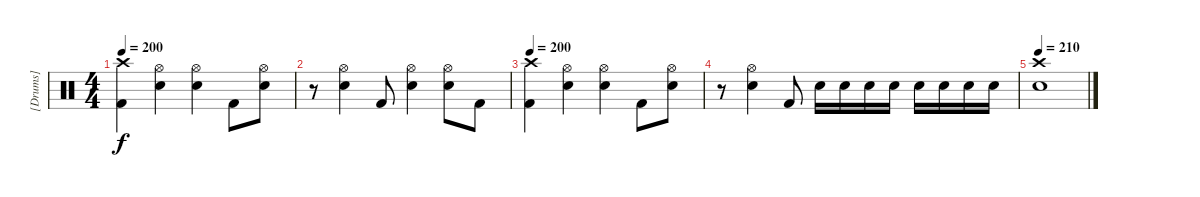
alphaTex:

\track ("[Drums]" "[Drums]") {instrument percussion}
\staff {score}
\articulation defaults
\ts (4 4)
\tempo 200
\clef neutral
\ks c
("Crash high (hit)" "Kick (hit) 2").4{dy f} ("Hi-Hat (open)" "Snare (hit) 2").4 ("Hi-Hat (open)" "Snare (hit) 2").4 "Kick (hit) 2".8 ("Hi-Hat (open)" "Snare (hit) 2").8 |
r.8 ("Hi-Hat (open)" "Snare (hit) 2").4 "Kick (hit) 2".8 ("Hi-Hat (open)" "Snare (hit) 2").4 ("Hi-Hat (open)" "Snare (hit) 2").8 "Kick (hit) 2".8 |
\tempo 200
("Crash high (hit)" "Kick (hit) 2").4 ("Hi-Hat (open)" "Snare (hit) 2").4 ("Hi-Hat (open)" "Snare (hit) 2").4 "Kick (hit) 2".8 ("Hi-Hat (open)" "Snare (hit) 2").8 |
r.8 ("Hi-Hat (open)" "Snare (hit) 2").4 "Kick (hit) 2".8 "Snare (hit) 2".16 "Snare (hit) 2".16 "Snare (hit) 2".16 "Snare (hit) 2".16 "Snare (hit) 2".16 "Snare (hit) 2".16 "Snare (hit) 2".16 "Snare (hit) 2".16 |
\tempo 210
("Crash high (hit)" "Snare (hit) 2").1
